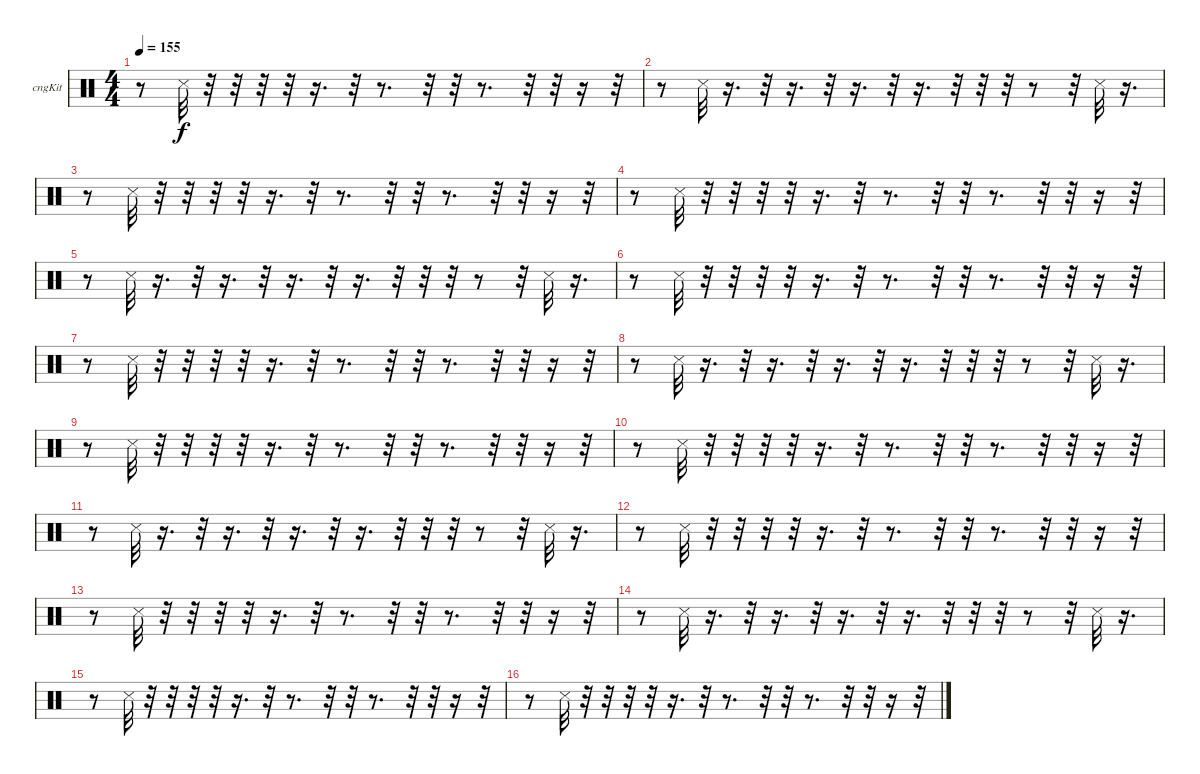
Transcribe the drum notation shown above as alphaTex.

\bracketExtendMode groupsimilarinstruments
\firstSystemTrackNameOrientation horizontal
\otherSystemsTrackNameOrientation horizontal
\track ("Е. Кулаков" "cngKit") {instrument percussion}
\staff {score}
\articulation defaults
\ts (4 4)
\tempo 155
\clef neutral
\ks c
r.8{dy f} "Snare (side stick) 3".32 r.32 r.32 r.32 r.32 r.16{d} r.32 r.8{d} r.32 r.32 r.8{d} r.32 r.32 r.16 r.32 |
r.8 "Snare (side stick) 3".32 r.16{d} r.32 r.16{d} r.32 r.16{d} r.32 r.16{d} r.32 r.32 r.32 r.8 r.32 "Snare (side stick) 3".32 r.16{d} |
r.8 "Snare (side stick) 3".32 r.32 r.32 r.32 r.32 r.16{d} r.32 r.8{d} r.32 r.32 r.8{d} r.32 r.32 r.16 r.32 |
r.8 "Snare (side stick) 3".32 r.32 r.32 r.32 r.32 r.16{d} r.32 r.8{d} r.32 r.32 r.8{d} r.32 r.32 r.16 r.32 |
r.8 "Snare (side stick) 3".32 r.16{d} r.32 r.16{d} r.32 r.16{d} r.32 r.16{d} r.32 r.32 r.32 r.8 r.32 "Snare (side stick) 3".32 r.16{d} |
r.8 "Snare (side stick) 3".32 r.32 r.32 r.32 r.32 r.16{d} r.32 r.8{d} r.32 r.32 r.8{d} r.32 r.32 r.16 r.32 |
r.8 "Snare (side stick) 3".32 r.32 r.32 r.32 r.32 r.16{d} r.32 r.8{d} r.32 r.32 r.8{d} r.32 r.32 r.16 r.32 |
r.8 "Snare (side stick) 3".32 r.16{d} r.32 r.16{d} r.32 r.16{d} r.32 r.16{d} r.32 r.32 r.32 r.8 r.32 "Snare (side stick) 3".32 r.16{d} |
r.8 "Snare (side stick) 3".32 r.32 r.32 r.32 r.32 r.16{d} r.32 r.8{d} r.32 r.32 r.8{d} r.32 r.32 r.16 r.32 |
r.8 "Snare (side stick) 3".32 r.32 r.32 r.32 r.32 r.16{d} r.32 r.8{d} r.32 r.32 r.8{d} r.32 r.32 r.16 r.32 |
r.8 "Snare (side stick) 3".32 r.16{d} r.32 r.16{d} r.32 r.16{d} r.32 r.16{d} r.32 r.32 r.32 r.8 r.32 "Snare (side stick) 3".32 r.16{d} |
r.8 "Snare (side stick) 3".32 r.32 r.32 r.32 r.32 r.16{d} r.32 r.8{d} r.32 r.32 r.8{d} r.32 r.32 r.16 r.32 |
r.8 "Snare (side stick) 3".32 r.32 r.32 r.32 r.32 r.16{d} r.32 r.8{d} r.32 r.32 r.8{d} r.32 r.32 r.16 r.32 |
r.8 "Snare (side stick) 3".32 r.16{d} r.32 r.16{d} r.32 r.16{d} r.32 r.16{d} r.32 r.32 r.32 r.8 r.32 "Snare (side stick) 3".32 r.16{d} |
r.8 "Snare (side stick) 3".32 r.32 r.32 r.32 r.32 r.16{d} r.32 r.8{d} r.32 r.32 r.8{d} r.32 r.32 r.16 r.32 |
r.8 "Snare (side stick) 3".32 r.32 r.32 r.32 r.32 r.16{d} r.32 r.8{d} r.32 r.32 r.8{d} r.32 r.32 r.16 r.32
